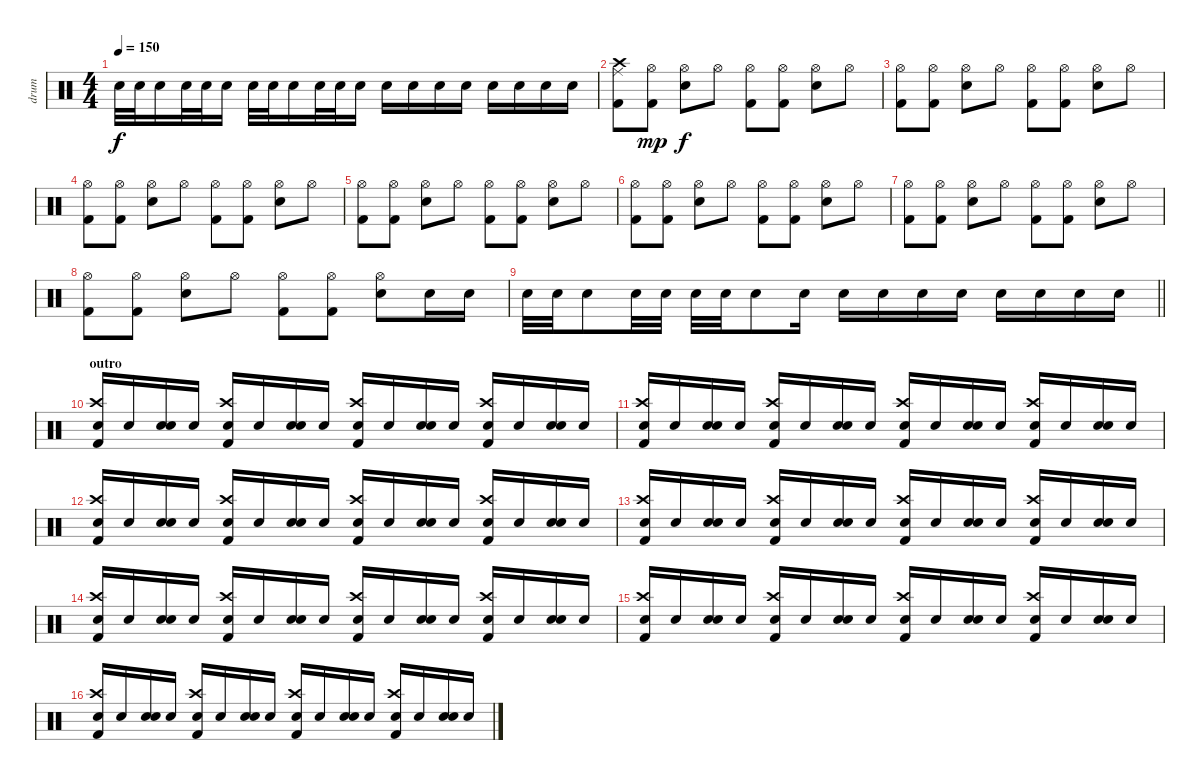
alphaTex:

\track ("drum" "drum") {instrument percussion}
\staff {score}
\articulation defaults
\ts (4 4)
\tempo 150
\clef neutral
\ks c "Snare (hit) 2".32{dy f} "Snare (hit) 2".32 "Snare (hit) 2".16 "Snare (hit) 2".32 "Snare (hit)".32 "Snare (hit) 2".16 "Snare (hit) 2".32 "Snare (hit) 2".32 "Snare (hit) 2".16 "Snare (hit) 2".32 "Snare (hit)".32 "Snare (hit) 2".16 "Snare (hit) 2".16 "Snare (hit) 2".16 "Snare (hit) 2".16 "Snare (hit) 2".16 "Snare (hit) 2".16 "Snare (hit) 2".16 "Snare (hit) 2".16 "Snare (hit) 2".16
|
("Ride (middle)" "Crash high (hit)" "Kick (hit) 2").8 ("Hi-Hat (open)" "Kick (hit) 2").8{dy mp} ("Hi-Hat (open)" "Snare (hit) 2").8{dy f} "Hi-Hat (open)".8 ("Hi-Hat (open)" "Kick (hit) 2").8 ("Hi-Hat (open)" "Kick (hit) 2").8 ("Hi-Hat (open)" "Snare (hit) 2").8 "Hi-Hat (open)".8 |
("Hi-Hat (open)" "Kick (hit) 2").8 ("Hi-Hat (open)" "Kick (hit) 2").8 ("Hi-Hat (open)" "Snare (hit) 2").8 "Hi-Hat (open)".8 ("Hi-Hat (open)" "Kick (hit) 2").8 ("Hi-Hat (open)" "Kick (hit) 2").8 ("Hi-Hat (open)" "Snare (hit) 2").8 "Hi-Hat (open)".8 |
("Hi-Hat (open)" "Kick (hit) 2").8 ("Hi-Hat (open)" "Kick (hit) 2").8 ("Hi-Hat (open)" "Snare (hit) 2").8 "Hi-Hat (open)".8 ("Hi-Hat (open)" "Kick (hit) 2").8 ("Hi-Hat (open)" "Kick (hit) 2").8 ("Hi-Hat (open)" "Snare (hit) 2").8 "Hi-Hat (open)".8 |
("Hi-Hat (open)" "Kick (hit) 2").8 ("Hi-Hat (open)" "Kick (hit) 2").8 ("Hi-Hat (open)" "Snare (hit) 2").8 "Hi-Hat (open)".8 ("Hi-Hat (open)" "Kick (hit) 2").8 ("Hi-Hat (open)" "Kick (hit) 2").8 ("Hi-Hat (open)" "Snare (hit) 2").8 "Hi-Hat (open)".8 |
("Hi-Hat (open)" "Kick (hit) 2").8 ("Hi-Hat (open)" "Kick (hit) 2").8 ("Hi-Hat (open)" "Snare (hit) 2").8 "Hi-Hat (open)".8 ("Hi-Hat (open)" "Kick (hit) 2").8 ("Hi-Hat (open)" "Kick (hit) 2").8 ("Hi-Hat (open)" "Snare (hit) 2").8 "Hi-Hat (open)".8 |
("Hi-Hat (open)" "Kick (hit) 2").8 ("Hi-Hat (open)" "Kick (hit) 2").8 ("Hi-Hat (open)" "Snare (hit) 2").8 "Hi-Hat (open)".8 ("Hi-Hat (open)" "Kick (hit) 2").8 ("Hi-Hat (open)" "Kick (hit) 2").8 ("Hi-Hat (open)" "Snare (hit) 2").8 "Hi-Hat (open)".8 |
("Hi-Hat (open)" "Kick (hit) 2").8 ("Hi-Hat (open)" "Kick (hit) 2").8 ("Hi-Hat (open)" "Snare (hit) 2").8 "Hi-Hat (open)".8 ("Hi-Hat (open)" "Kick (hit) 2").8 ("Hi-Hat (open)" "Kick (hit) 2").8 ("Hi-Hat (open)" "Snare (hit) 2").8 "Snare (hit) 2".16 "Snare (hit) 2".16 |
\barLineRight lightlight "Snare (hit) 2".32 "Snare (hit) 2".32 "Snare (hit) 2".8 "Snare (hit) 2".32 "Snare (hit) 2".32 "Snare (hit) 2".32 "Snare (hit) 2".32 "Snare (hit) 2".8 "Snare (hit) 2".16 "Snare (hit) 2".16 "Snare (hit) 2".16 "Snare (hit) 2".16 "Snare (hit) 2".16 "Snare (hit) 2".16 "Snare (hit) 2".16 "Snare (hit) 2".16 "Snare (hit) 2".16
|
\section ("" "outro")
("Crash high (hit)" "Snare (hit) 2" "Kick (hit) 2").16 "Snare (hit) 2".16 ("Snare (hit) 2" "Snare (hit) 2").16 "Snare (hit) 2".16 ("Crash high (hit)" "Snare (hit) 2" "Kick (hit) 2").16 "Snare (hit) 2".16 ("Snare (hit) 2" "Snare (hit) 2").16 "Snare (hit) 2".16 ("Crash high (hit)" "Snare (hit) 2" "Kick (hit) 2").16 "Snare (hit) 2".16 ("Snare (hit) 2" "Snare (hit) 2").16 "Snare (hit) 2".16 ("Crash high (hit)" "Snare (hit) 2" "Kick (hit) 2").16 "Snare (hit) 2".16 ("Snare (hit) 2" "Snare (hit) 2").16 "Snare (hit) 2".16 |
("Crash high (hit)" "Snare (hit) 2" "Kick (hit) 2").16 "Snare (hit) 2".16 ("Snare (hit) 2" "Snare (hit) 2").16 "Snare (hit) 2".16 ("Crash high (hit)" "Snare (hit) 2" "Kick (hit) 2").16 "Snare (hit) 2".16 ("Snare (hit) 2" "Snare (hit) 2").16 "Snare (hit) 2".16 ("Crash high (hit)" "Snare (hit) 2" "Kick (hit) 2").16 "Snare (hit) 2".16 ("Snare (hit) 2" "Snare (hit) 2").16 "Snare (hit) 2".16 ("Crash high (hit)" "Snare (hit) 2" "Kick (hit) 2").16 "Snare (hit) 2".16 ("Snare (hit) 2" "Snare (hit) 2").16 "Snare (hit) 2".16 |
("Crash high (hit)" "Snare (hit) 2" "Kick (hit) 2").16 "Snare (hit) 2".16 ("Snare (hit) 2" "Snare (hit) 2").16 "Snare (hit) 2".16 ("Crash high (hit)" "Snare (hit) 2" "Kick (hit) 2").16 "Snare (hit) 2".16 ("Snare (hit) 2" "Snare (hit) 2").16 "Snare (hit) 2".16 ("Crash high (hit)" "Snare (hit) 2" "Kick (hit) 2").16 "Snare (hit) 2".16 ("Snare (hit) 2" "Snare (hit) 2").16 "Snare (hit) 2".16 ("Crash high (hit)" "Snare (hit) 2" "Kick (hit) 2").16 "Snare (hit) 2".16 ("Snare (hit) 2" "Snare (hit) 2").16 "Snare (hit) 2".16 |
("Crash high (hit)" "Snare (hit) 2" "Kick (hit) 2").16 "Snare (hit) 2".16 ("Snare (hit) 2" "Snare (hit) 2").16 "Snare (hit) 2".16 ("Crash high (hit)" "Snare (hit) 2" "Kick (hit) 2").16 "Snare (hit) 2".16 ("Snare (hit) 2" "Snare (hit) 2").16 "Snare (hit) 2".16 ("Crash high (hit)" "Snare (hit) 2" "Kick (hit) 2").16 "Snare (hit) 2".16 ("Snare (hit) 2" "Snare (hit) 2").16 "Snare (hit) 2".16 ("Crash high (hit)" "Snare (hit) 2" "Kick (hit) 2").16 "Snare (hit) 2".16 ("Snare (hit) 2" "Snare (hit) 2").16 "Snare (hit) 2".16 |
("Crash high (hit)" "Snare (hit) 2" "Kick (hit) 2").16 "Snare (hit) 2".16 ("Snare (hit) 2" "Snare (hit) 2").16 "Snare (hit) 2".16 ("Crash high (hit)" "Snare (hit) 2" "Kick (hit) 2").16 "Snare (hit) 2".16 ("Snare (hit) 2" "Snare (hit) 2").16 "Snare (hit) 2".16 ("Crash high (hit)" "Snare (hit) 2" "Kick (hit) 2").16 "Snare (hit) 2".16 ("Snare (hit) 2" "Snare (hit) 2").16 "Snare (hit) 2".16 ("Crash high (hit)" "Snare (hit) 2" "Kick (hit) 2").16 "Snare (hit) 2".16 ("Snare (hit) 2" "Snare (hit) 2").16 "Snare (hit) 2".16 |
("Crash high (hit)" "Snare (hit) 2" "Kick (hit) 2").16 "Snare (hit) 2".16 ("Snare (hit) 2" "Snare (hit) 2").16 "Snare (hit) 2".16 ("Crash high (hit)" "Snare (hit) 2" "Kick (hit) 2").16 "Snare (hit) 2".16 ("Snare (hit) 2" "Snare (hit) 2").16 "Snare (hit) 2".16 ("Crash high (hit)" "Snare (hit) 2" "Kick (hit) 2").16 "Snare (hit) 2".16 ("Snare (hit) 2" "Snare (hit) 2").16 "Snare (hit) 2".16 ("Crash high (hit)" "Snare (hit) 2" "Kick (hit) 2").16 "Snare (hit) 2".16 ("Snare (hit) 2" "Snare (hit) 2").16 "Snare (hit) 2".16 |
("Crash high (hit)" "Snare (hit) 2" "Kick (hit) 2").16 "Snare (hit) 2".16 ("Snare (hit) 2" "Snare (hit) 2").16 "Snare (hit) 2".16 ("Crash high (hit)" "Snare (hit) 2" "Kick (hit) 2").16 "Snare (hit) 2".16 ("Snare (hit) 2" "Snare (hit) 2").16 "Snare (hit) 2".16 ("Crash high (hit)" "Snare (hit) 2" "Kick (hit) 2").16 "Snare (hit) 2".16 ("Snare (hit) 2" "Snare (hit) 2").16 "Snare (hit) 2".16 ("Crash high (hit)" "Snare (hit) 2" "Kick (hit) 2").16 "Snare (hit) 2".16 ("Snare (hit) 2" "Snare (hit) 2").16 "Snare (hit) 2".16
